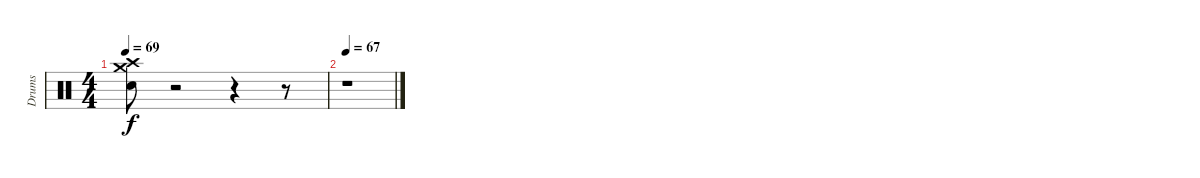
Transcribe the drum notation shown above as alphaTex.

\track ("Drums" "Drums") {instrument percussion}
\staff {score}
\articulation defaults
\ts (4 4)
\tempo 69
\clef neutral
\ks c
("Crash medium (hit)" "Crash high (hit)" "Snare (hit) 2").8{dy f} r.2 r.4 r.8 |
\tempo 67
r.1
